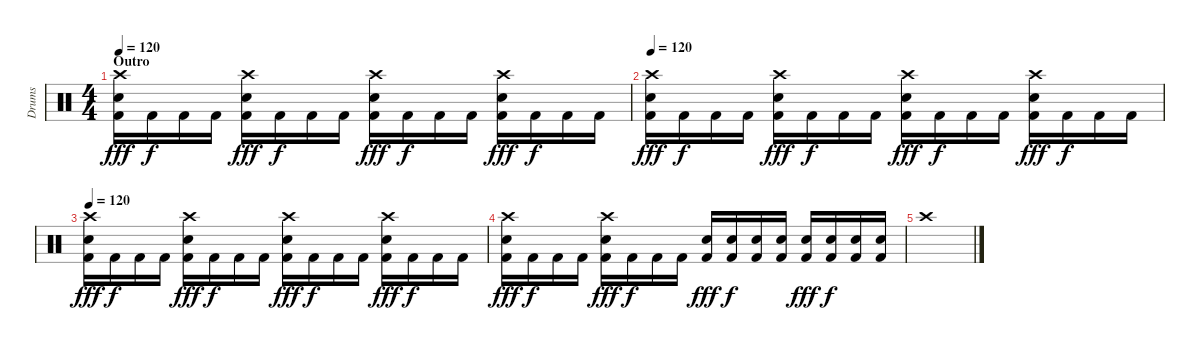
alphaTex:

\track ("Drums" "Drums") {instrument percussion}
\staff {score}
\articulation defaults
\ts (4 4)
\section ("" "Outro")
\tempo 120
\clef neutral
\ks c
("Crash high (hit)" "Electric Snare (hit)" "Kick (hit) 2").16{dy fff} "Kick (hit) 2".16{dy f} "Kick (hit) 2".16 "Kick (hit) 2".16 ("Crash high (hit)" "Electric Snare (hit)" "Kick (hit) 2").16{dy fff} "Kick (hit) 2".16{dy f} "Kick (hit) 2".16 "Kick (hit) 2".16 ("Crash high (hit)" "Electric Snare (hit)" "Kick (hit) 2").16{dy fff} "Kick (hit) 2".16{dy f} "Kick (hit) 2".16 "Kick (hit) 2".16 ("Crash high (hit)" "Electric Snare (hit)" "Kick (hit) 2").16{dy fff} "Kick (hit) 2".16{dy f} "Kick (hit) 2".16 "Kick (hit) 2".16 |
\tempo 120
("Crash high (hit)" "Electric Snare (hit)" "Kick (hit) 2").16{dy fff} "Kick (hit) 2".16{dy f} "Kick (hit) 2".16 "Kick (hit) 2".16 ("Crash high (hit)" "Electric Snare (hit)" "Kick (hit) 2").16{dy fff} "Kick (hit) 2".16{dy f} "Kick (hit) 2".16 "Kick (hit) 2".16 ("Crash high (hit)" "Electric Snare (hit)" "Kick (hit) 2").16{dy fff} "Kick (hit) 2".16{dy f} "Kick (hit) 2".16 "Kick (hit) 2".16 ("Crash high (hit)" "Electric Snare (hit)" "Kick (hit) 2").16{dy fff} "Kick (hit) 2".16{dy f} "Kick (hit) 2".16 "Kick (hit) 2".16 |
\tempo 120
("Crash high (hit)" "Electric Snare (hit)" "Kick (hit) 2").16{dy fff} "Kick (hit) 2".16{dy f} "Kick (hit) 2".16 "Kick (hit) 2".16 ("Crash high (hit)" "Electric Snare (hit)" "Kick (hit) 2").16{dy fff} "Kick (hit) 2".16{dy f} "Kick (hit) 2".16 "Kick (hit) 2".16 ("Crash high (hit)" "Electric Snare (hit)" "Kick (hit) 2").16{dy fff} "Kick (hit) 2".16{dy f} "Kick (hit) 2".16 "Kick (hit) 2".16 ("Crash high (hit)" "Electric Snare (hit)" "Kick (hit) 2").16{dy fff} "Kick (hit) 2".16{dy f} "Kick (hit) 2".16 "Kick (hit) 2".16 |
("Crash high (hit)" "Electric Snare (hit)" "Kick (hit) 2").16{dy fff} "Kick (hit) 2".16{dy f} "Kick (hit) 2".16 "Kick (hit) 2".16 ("Crash high (hit)" "Electric Snare (hit)" "Kick (hit) 2").16{dy fff} "Kick (hit) 2".16{dy f} "Kick (hit) 2".16 "Kick (hit) 2".16 ("Electric Snare (hit)" "Kick (hit) 2").16{dy fff} ("Electric Snare (hit)" "Kick (hit) 2").16{dy f} ("Electric Snare (hit)" "Kick (hit) 2").16 ("Electric Snare (hit)" "Kick (hit) 2").16 ("Electric Snare (hit)" "Kick (hit) 2").16{dy fff} ("Electric Snare (hit)" "Kick (hit) 2").16{dy f} ("Electric Snare (hit)" "Kick (hit) 2").16 ("Electric Snare (hit)" "Kick (hit) 2").16 |
"Crash high (hit)".1
